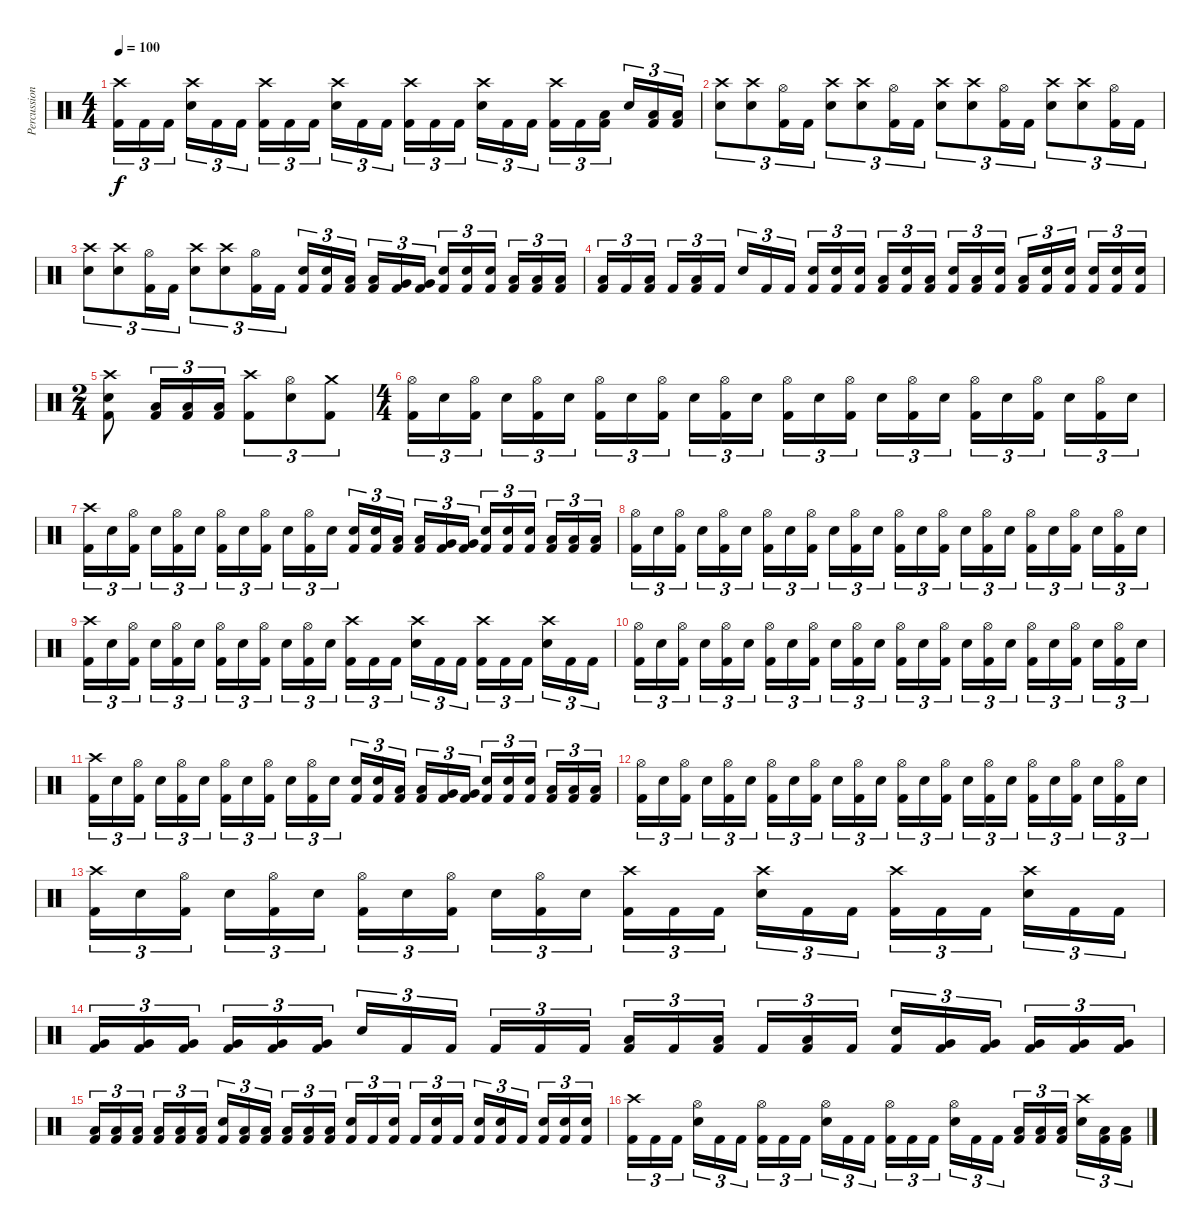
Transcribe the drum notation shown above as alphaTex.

\track ("Percussion" "Percussion") {instrument percussion}
\staff {score}
\articulation defaults
\ts (4 4)
\tempo 100
\clef neutral
\ks c
("Crash high (hit)" "Kick (hit) 2").16{tu (3 2) dy f} "Kick (hit) 2".16{tu (3 2)} "Kick (hit) 2".16{tu (3 2)} ("Crash high (hit)" "Electric Snare (hit)").16{tu (3 2)} "Kick (hit) 2".16{tu (3 2)} "Kick (hit) 2".16{tu (3 2)} ("Crash high (hit)" "Kick (hit) 2").16{tu (3 2)} "Kick (hit) 2".16{tu (3 2)} "Kick (hit) 2".16{tu (3 2)} ("Crash high (hit)" "Electric Snare (hit)").16{tu (3 2)} "Kick (hit) 2".16{tu (3 2)} "Kick (hit) 2".16{tu (3 2)} ("Crash high (hit)" "Kick (hit) 2").16{tu (3 2)} "Kick (hit) 2".16{tu (3 2)} "Kick (hit) 2".16{tu (3 2)} ("Crash high (hit)" "Electric Snare (hit)").16{tu (3 2)} "Kick (hit) 2".16{tu (3 2)} "Kick (hit) 2".16{tu (3 2)} ("Crash high (hit)" "Kick (hit) 2").16{tu (3 2)} "Kick (hit) 2".16{tu (3 2)} ("Low Tom (hit)" "Kick (hit) 2").16{tu (3 2)} "Electric Snare (hit)".16{tu (3 2)} ("Low Tom (hit)" "Kick (hit) 2").16{tu (3 2)} ("Low Tom (hit)" "Kick (hit) 2").16{tu (3 2)} |
("Crash high (hit)" "Electric Snare (hit)").8{tu (3 2)} ("Crash high (hit)" "Electric Snare (hit)").8{tu (3 2)} ("Hi-Hat (open)" "Kick (hit) 2").16{tu (3 2)} "Kick (hit) 2".16{tu (3 2)} ("Crash high (hit)" "Electric Snare (hit)").8{tu (3 2)} ("Crash high (hit)" "Electric Snare (hit)").8{tu (3 2)} ("Hi-Hat (open)" "Kick (hit) 2").16{tu (3 2)} "Kick (hit) 2".16{tu (3 2)} ("Crash high (hit)" "Electric Snare (hit)").8{tu (3 2)} ("Crash high (hit)" "Electric Snare (hit)").8{tu (3 2)} ("Hi-Hat (open)" "Kick (hit) 2").16{tu (3 2)} "Kick (hit) 2".16{tu (3 2)} ("Crash high (hit)" "Electric Snare (hit)").8{tu (3 2)} ("Crash high (hit)" "Electric Snare (hit)").8{tu (3 2)} ("Hi-Hat (open)" "Kick (hit) 2").16{tu (3 2)} "Kick (hit) 2".16{tu (3 2)} |
("Crash high (hit)" "Electric Snare (hit)").8{tu (3 2)} ("Crash high (hit)" "Electric Snare (hit)").8{tu (3 2)} ("Hi-Hat (open)" "Kick (hit) 2").16{tu (3 2)} "Kick (hit) 2".16{tu (3 2)} ("Crash high (hit)" "Electric Snare (hit)").8{tu (3 2)} ("Crash high (hit)" "Electric Snare (hit)").8{tu (3 2)} ("Hi-Hat (open)" "Kick (hit) 2").16{tu (3 2)} "Kick (hit) 2".16{tu (3 2)} ("Electric Snare (hit)" "Kick (hit) 2").16{tu (3 2)} ("Electric Snare (hit)" "Kick (hit) 2").16{tu (3 2)} ("Low Tom (hit)" "Kick (hit) 2").16{tu (3 2)} ("Low Tom (hit)" "Kick (hit) 2").16{tu (3 2)} ("Very Low Tom (hit)" "Kick (hit) 2").16{tu (3 2)} ("Very Low Tom (hit)" "Kick (hit) 2").16{tu (3 2)} ("Electric Snare (hit)" "Kick (hit) 2").16{tu (3 2)} ("Electric Snare (hit)" "Kick (hit) 2").16{tu (3 2)} ("Electric Snare (hit)" "Kick (hit) 2").16{tu (3 2)} ("Low Tom (hit)" "Kick (hit) 2").16{tu (3 2)} ("Low Tom (hit)" "Kick (hit) 2").16{tu (3 2)} ("Low Tom (hit)" "Kick (hit) 2").16{tu (3 2)} |
("Low Tom (hit)" "Kick (hit) 2").16{tu (3 2)} "Kick (hit) 2".16{tu (3 2)} ("Low Tom (hit)" "Kick (hit) 2").16{tu (3 2)} "Kick (hit) 2".16{tu (3 2)} ("Low Tom (hit)" "Kick (hit) 2").16{tu (3 2)} "Kick (hit) 2".16{tu (3 2)} "Electric Snare (hit)".16{tu (3 2)} "Kick (hit) 2".16{tu (3 2)} "Kick (hit) 2".16{tu (3 2)} ("Electric Snare (hit)" "Kick (hit) 2").16{tu (3 2)} ("Electric Snare (hit)" "Kick (hit) 2").16{tu (3 2)} ("Electric Snare (hit)" "Kick (hit) 2").16{tu (3 2)} ("Low Tom (hit)" "Kick (hit) 2").16{tu (3 2)} ("Electric Snare (hit)" "Kick (hit) 2").16{tu (3 2)} ("Low Tom (hit)" "Kick (hit) 2").16{tu (3 2)} ("Electric Snare (hit)" "Kick (hit) 2").16{tu (3 2)} ("Low Tom (hit)" "Kick (hit) 2").16{tu (3 2)} ("Electric Snare (hit)" "Kick (hit) 2").16{tu (3 2)} ("Low Tom (hit)" "Kick (hit) 2").16{tu (3 2)} ("Electric Snare (hit)" "Kick (hit) 2").16{tu (3 2)} ("Electric Snare (hit)" "Kick (hit) 2").16{tu (3 2)} ("Electric Snare (hit)" "Kick (hit) 2").16{tu (3 2)} ("Electric Snare (hit)" "Kick (hit) 2").16{tu (3 2)} ("Electric Snare (hit)" "Kick (hit) 2").16{tu (3 2)} |
\ts (2 4)
("Crash high (hit)" "Electric Snare (hit)" "Kick (hit) 2").8 ("Low Tom (hit)" "Kick (hit) 2").16{tu (3 2)} ("Low Tom (hit)" "Kick (hit) 2").16{tu (3 2)} ("Low Tom (hit)" "Kick (hit) 2").16{tu (3 2)} ("Crash high (hit)" "Kick (hit) 2").8{tu (3 2)} ("Hi-Hat (open)" "Electric Snare (hit)").8{tu (3 2)} ("Crash medium (hit)" "Kick (hit) 2").8{tu (3 2)} |
\ts (4 4)
("Hi-Hat (open)" "Kick (hit) 2").16{tu (3 2)} "Electric Snare (hit)".16{tu (3 2)} ("Hi-Hat (open)" "Kick (hit) 2").16{tu (3 2)} "Electric Snare (hit)".16{tu (3 2)} ("Hi-Hat (open)" "Kick (hit) 2").16{tu (3 2)} "Electric Snare (hit)".16{tu (3 2)} ("Hi-Hat (open)" "Kick (hit) 2").16{tu (3 2)} "Electric Snare (hit)".16{tu (3 2)} ("Hi-Hat (open)" "Kick (hit) 2").16{tu (3 2)} "Electric Snare (hit)".16{tu (3 2)} ("Hi-Hat (open)" "Kick (hit) 2").16{tu (3 2)} "Electric Snare (hit)".16{tu (3 2)} ("Hi-Hat (open)" "Kick (hit) 2").16{tu (3 2)} "Electric Snare (hit)".16{tu (3 2)} ("Hi-Hat (open)" "Kick (hit) 2").16{tu (3 2)} "Electric Snare (hit)".16{tu (3 2)} ("Hi-Hat (open)" "Kick (hit) 2").16{tu (3 2)} "Electric Snare (hit)".16{tu (3 2)} ("Hi-Hat (open)" "Kick (hit) 2").16{tu (3 2)} "Electric Snare (hit)".16{tu (3 2)} ("Hi-Hat (open)" "Kick (hit) 2").16{tu (3 2)} "Electric Snare (hit)".16{tu (3 2)} ("Hi-Hat (open)" "Kick (hit) 2").16{tu (3 2)} "Electric Snare (hit)".16{tu (3 2)} |
("Crash high (hit)" "Kick (hit) 2").16{tu (3 2)} "Electric Snare (hit)".16{tu (3 2)} ("Hi-Hat (open)" "Kick (hit) 2").16{tu (3 2)} "Electric Snare (hit)".16{tu (3 2)} ("Hi-Hat (open)" "Kick (hit) 2").16{tu (3 2)} "Electric Snare (hit)".16{tu (3 2)} ("Hi-Hat (open)" "Kick (hit) 2").16{tu (3 2)} "Electric Snare (hit)".16{tu (3 2)} ("Hi-Hat (open)" "Kick (hit) 2").16{tu (3 2)} "Electric Snare (hit)".16{tu (3 2)} ("Hi-Hat (open)" "Kick (hit) 2").16{tu (3 2)} "Electric Snare (hit)".16{tu (3 2)} ("Electric Snare (hit)" "Kick (hit) 2").16{tu (3 2)} ("Electric Snare (hit)" "Kick (hit) 2").16{tu (3 2)} ("Low Tom (hit)" "Kick (hit) 2").16{tu (3 2)} ("Low Tom (hit)" "Kick (hit) 2").16{tu (3 2)} ("Very Low Tom (hit)" "Kick (hit) 2").16{tu (3 2)} ("Very Low Tom (hit)" "Kick (hit) 2").16{tu (3 2)} ("Electric Snare (hit)" "Kick (hit) 2").16{tu (3 2)} ("Electric Snare (hit)" "Kick (hit) 2").16{tu (3 2)} ("Electric Snare (hit)" "Kick (hit) 2").16{tu (3 2)} ("Low Tom (hit)" "Kick (hit) 2").16{tu (3 2)} ("Low Tom (hit)" "Kick (hit) 2").16{tu (3 2)} ("Low Tom (hit)" "Kick (hit) 2").16{tu (3 2)} |
("Hi-Hat (open)" "Kick (hit) 2").16{tu (3 2)} "Electric Snare (hit)".16{tu (3 2)} ("Hi-Hat (open)" "Kick (hit) 2").16{tu (3 2)} "Electric Snare (hit)".16{tu (3 2)} ("Hi-Hat (open)" "Kick (hit) 2").16{tu (3 2)} "Electric Snare (hit)".16{tu (3 2)} ("Hi-Hat (open)" "Kick (hit) 2").16{tu (3 2)} "Electric Snare (hit)".16{tu (3 2)} ("Hi-Hat (open)" "Kick (hit) 2").16{tu (3 2)} "Electric Snare (hit)".16{tu (3 2)} ("Hi-Hat (open)" "Kick (hit) 2").16{tu (3 2)} "Electric Snare (hit)".16{tu (3 2)} ("Hi-Hat (open)" "Kick (hit) 2").16{tu (3 2)} "Electric Snare (hit)".16{tu (3 2)} ("Hi-Hat (open)" "Kick (hit) 2").16{tu (3 2)} "Electric Snare (hit)".16{tu (3 2)} ("Hi-Hat (open)" "Kick (hit) 2").16{tu (3 2)} "Electric Snare (hit)".16{tu (3 2)} ("Hi-Hat (open)" "Kick (hit) 2").16{tu (3 2)} "Electric Snare (hit)".16{tu (3 2)} ("Hi-Hat (open)" "Kick (hit) 2").16{tu (3 2)} "Electric Snare (hit)".16{tu (3 2)} ("Hi-Hat (open)" "Kick (hit) 2").16{tu (3 2)} "Electric Snare (hit)".16{tu (3 2)} |
("Crash high (hit)" "Kick (hit) 2").16{tu (3 2)} "Electric Snare (hit)".16{tu (3 2)} ("Hi-Hat (open)" "Kick (hit) 2").16{tu (3 2)} "Electric Snare (hit)".16{tu (3 2)} ("Hi-Hat (open)" "Kick (hit) 2").16{tu (3 2)} "Electric Snare (hit)".16{tu (3 2)} ("Hi-Hat (open)" "Kick (hit) 2").16{tu (3 2)} "Electric Snare (hit)".16{tu (3 2)} ("Hi-Hat (open)" "Kick (hit) 2").16{tu (3 2)} "Electric Snare (hit)".16{tu (3 2)} ("Hi-Hat (open)" "Kick (hit) 2").16{tu (3 2)} "Electric Snare (hit)".16{tu (3 2)} ("Crash high (hit)" "Kick (hit) 2").16{tu (3 2)} "Kick (hit) 2".16{tu (3 2)} "Kick (hit) 2".16{tu (3 2)} ("Crash high (hit)" "Electric Snare (hit)").16{tu (3 2)} "Kick (hit) 2".16{tu (3 2)} "Kick (hit) 2".16{tu (3 2)} ("Crash high (hit)" "Kick (hit) 2").16{tu (3 2)} "Kick (hit) 2".16{tu (3 2)} "Kick (hit) 2".16{tu (3 2)} ("Crash high (hit)" "Electric Snare (hit)").16{tu (3 2)} "Kick (hit) 2".16{tu (3 2)} "Kick (hit) 2".16{tu (3 2)} |
("Hi-Hat (open)" "Kick (hit) 2").16{tu (3 2)} "Electric Snare (hit)".16{tu (3 2)} ("Hi-Hat (open)" "Kick (hit) 2").16{tu (3 2)} "Electric Snare (hit)".16{tu (3 2)} ("Hi-Hat (open)" "Kick (hit) 2").16{tu (3 2)} "Electric Snare (hit)".16{tu (3 2)} ("Hi-Hat (open)" "Kick (hit) 2").16{tu (3 2)} "Electric Snare (hit)".16{tu (3 2)} ("Hi-Hat (open)" "Kick (hit) 2").16{tu (3 2)} "Electric Snare (hit)".16{tu (3 2)} ("Hi-Hat (open)" "Kick (hit) 2").16{tu (3 2)} "Electric Snare (hit)".16{tu (3 2)} ("Hi-Hat (open)" "Kick (hit) 2").16{tu (3 2)} "Electric Snare (hit)".16{tu (3 2)} ("Hi-Hat (open)" "Kick (hit) 2").16{tu (3 2)} "Electric Snare (hit)".16{tu (3 2)} ("Hi-Hat (open)" "Kick (hit) 2").16{tu (3 2)} "Electric Snare (hit)".16{tu (3 2)} ("Hi-Hat (open)" "Kick (hit) 2").16{tu (3 2)} "Electric Snare (hit)".16{tu (3 2)} ("Hi-Hat (open)" "Kick (hit) 2").16{tu (3 2)} "Electric Snare (hit)".16{tu (3 2)} ("Hi-Hat (open)" "Kick (hit) 2").16{tu (3 2)} "Electric Snare (hit)".16{tu (3 2)} |
("Crash high (hit)" "Kick (hit) 2").16{tu (3 2)} "Electric Snare (hit)".16{tu (3 2)} ("Hi-Hat (open)" "Kick (hit) 2").16{tu (3 2)} "Electric Snare (hit)".16{tu (3 2)} ("Hi-Hat (open)" "Kick (hit) 2").16{tu (3 2)} "Electric Snare (hit)".16{tu (3 2)} ("Hi-Hat (open)" "Kick (hit) 2").16{tu (3 2)} "Electric Snare (hit)".16{tu (3 2)} ("Hi-Hat (open)" "Kick (hit) 2").16{tu (3 2)} "Electric Snare (hit)".16{tu (3 2)} ("Hi-Hat (open)" "Kick (hit) 2").16{tu (3 2)} "Electric Snare (hit)".16{tu (3 2)} ("Electric Snare (hit)" "Kick (hit) 2").16{tu (3 2)} ("Electric Snare (hit)" "Kick (hit) 2").16{tu (3 2)} ("Low Tom (hit)" "Kick (hit) 2").16{tu (3 2)} ("Low Tom (hit)" "Kick (hit) 2").16{tu (3 2)} ("Very Low Tom (hit)" "Kick (hit) 2").16{tu (3 2)} ("Very Low Tom (hit)" "Kick (hit) 2").16{tu (3 2)} ("Electric Snare (hit)" "Kick (hit) 2").16{tu (3 2)} ("Electric Snare (hit)" "Kick (hit) 2").16{tu (3 2)} ("Electric Snare (hit)" "Kick (hit) 2").16{tu (3 2)} ("Low Tom (hit)" "Kick (hit) 2").16{tu (3 2)} ("Low Tom (hit)" "Kick (hit) 2").16{tu (3 2)} ("Low Tom (hit)" "Kick (hit) 2").16{tu (3 2)} |
("Hi-Hat (open)" "Kick (hit) 2").16{tu (3 2)} "Electric Snare (hit)".16{tu (3 2)} ("Hi-Hat (open)" "Kick (hit) 2").16{tu (3 2)} "Electric Snare (hit)".16{tu (3 2)} ("Hi-Hat (open)" "Kick (hit) 2").16{tu (3 2)} "Electric Snare (hit)".16{tu (3 2)} ("Hi-Hat (open)" "Kick (hit) 2").16{tu (3 2)} "Electric Snare (hit)".16{tu (3 2)} ("Hi-Hat (open)" "Kick (hit) 2").16{tu (3 2)} "Electric Snare (hit)".16{tu (3 2)} ("Hi-Hat (open)" "Kick (hit) 2").16{tu (3 2)} "Electric Snare (hit)".16{tu (3 2)} ("Hi-Hat (open)" "Kick (hit) 2").16{tu (3 2)} "Electric Snare (hit)".16{tu (3 2)} ("Hi-Hat (open)" "Kick (hit) 2").16{tu (3 2)} "Electric Snare (hit)".16{tu (3 2)} ("Hi-Hat (open)" "Kick (hit) 2").16{tu (3 2)} "Electric Snare (hit)".16{tu (3 2)} ("Hi-Hat (open)" "Kick (hit) 2").16{tu (3 2)} "Electric Snare (hit)".16{tu (3 2)} ("Hi-Hat (open)" "Kick (hit) 2").16{tu (3 2)} "Electric Snare (hit)".16{tu (3 2)} ("Hi-Hat (open)" "Kick (hit) 2").16{tu (3 2)} "Electric Snare (hit)".16{tu (3 2)} |
("Crash high (hit)" "Kick (hit) 2").16{tu (3 2)} "Electric Snare (hit)".16{tu (3 2)} ("Hi-Hat (open)" "Kick (hit) 2").16{tu (3 2)} "Electric Snare (hit)".16{tu (3 2)} ("Hi-Hat (open)" "Kick (hit) 2").16{tu (3 2)} "Electric Snare (hit)".16{tu (3 2)} ("Hi-Hat (open)" "Kick (hit) 2").16{tu (3 2)} "Electric Snare (hit)".16{tu (3 2)} ("Hi-Hat (open)" "Kick (hit) 2").16{tu (3 2)} "Electric Snare (hit)".16{tu (3 2)} ("Hi-Hat (open)" "Kick (hit) 2").16{tu (3 2)} "Electric Snare (hit)".16{tu (3 2)} ("Crash high (hit)" "Kick (hit) 2").16{tu (3 2)} "Kick (hit) 2".16{tu (3 2)} "Kick (hit) 2".16{tu (3 2)} ("Crash high (hit)" "Electric Snare (hit)").16{tu (3 2)} "Kick (hit) 2".16{tu (3 2)} "Kick (hit) 2".16{tu (3 2)} ("Crash high (hit)" "Kick (hit) 2").16{tu (3 2)} "Kick (hit) 2".16{tu (3 2)} "Kick (hit) 2".16{tu (3 2)} ("Crash high (hit)" "Electric Snare (hit)").16{tu (3 2)} "Kick (hit) 2".16{tu (3 2)} "Kick (hit) 2".16{tu (3 2)} |
("Very Low Tom (hit)" "Kick (hit) 2").16{tu (3 2)} ("Very Low Tom (hit)" "Kick (hit) 2").16{tu (3 2)} ("Very Low Tom (hit)" "Kick (hit) 2").16{tu (3 2)} ("Very Low Tom (hit)" "Kick (hit) 2").16{tu (3 2)} ("Very Low Tom (hit)" "Kick (hit) 2").16{tu (3 2)} ("Very Low Tom (hit)" "Kick (hit) 2").16{tu (3 2)} "Electric Snare (hit)".16{tu (3 2)} "Kick (hit) 2".16{tu (3 2)} "Kick (hit) 2".16{tu (3 2)} "Kick (hit) 2".16{tu (3 2)} "Kick (hit) 2".16{tu (3 2)} "Kick (hit) 2".16{tu (3 2)} ("Low Tom (hit)" "Kick (hit) 2").16{tu (3 2)} "Kick (hit) 2".16{tu (3 2)} ("Low Tom (hit)" "Kick (hit) 2").16{tu (3 2)} "Kick (hit) 2".16{tu (3 2)} ("Low Tom (hit)" "Kick (hit) 2").16{tu (3 2)} "Kick (hit) 2".16{tu (3 2)} ("Electric Snare (hit)" "Kick (hit) 2").16{tu (3 2)} ("Very Low Tom (hit)" "Kick (hit) 2").16{tu (3 2)} ("Very Low Tom (hit)" "Kick (hit) 2").16{tu (3 2)} ("Very Low Tom (hit)" "Kick (hit) 2").16{tu (3 2)} ("Very Low Tom (hit)" "Kick (hit) 2").16{tu (3 2)} ("Very Low Tom (hit)" "Kick (hit) 2").16{tu (3 2)} |
("Low Tom (hit)" "Kick (hit) 2").16{tu (3 2)} ("Low Tom (hit)" "Kick (hit) 2").16{tu (3 2)} ("Low Tom (hit)" "Kick (hit) 2").16{tu (3 2)} ("Low Tom (hit)" "Kick (hit) 2").16{tu (3 2)} ("Low Tom (hit)" "Kick (hit) 2").16{tu (3 2)} ("Low Tom (hit)" "Kick (hit) 2").16{tu (3 2)} ("Electric Snare (hit)" "Kick (hit) 2").16{tu (3 2)} ("Low Tom (hit)" "Kick (hit) 2").16{tu (3 2)} ("Low Tom (hit)" "Kick (hit) 2").16{tu (3 2)} ("Low Tom (hit)" "Kick (hit) 2").16{tu (3 2)} ("Low Tom (hit)" "Kick (hit) 2").16{tu (3 2)} ("Low Tom (hit)" "Kick (hit) 2").16{tu (3 2)} ("Electric Snare (hit)" "Kick (hit) 2").16{tu (3 2)} "Kick (hit) 2".16{tu (3 2)} ("Electric Snare (hit)" "Kick (hit) 2").16{tu (3 2)} "Kick (hit) 2".16{tu (3 2)} ("Electric Snare (hit)" "Kick (hit) 2").16{tu (3 2)} "Kick (hit) 2".16{tu (3 2)} ("Electric Snare (hit)" "Kick (hit) 2").16{tu (3 2)} ("Electric Snare (hit)" "Kick (hit) 2").16{tu (3 2)} "Kick (hit) 2".16{tu (3 2)} ("Electric Snare (hit)" "Kick (hit) 2").16{tu (3 2)} ("Electric Snare (hit)" "Kick (hit) 2").16{tu (3 2)} ("Electric Snare (hit)" "Kick (hit) 2").16{tu (3 2)} |
("Crash high (hit)" "Kick (hit) 2").16{tu (3 2)} "Kick (hit) 2".16{tu (3 2)} "Kick (hit) 2".16{tu (3 2)} ("Hi-Hat (open)" "Electric Snare (hit)").16{tu (3 2)} "Kick (hit) 2".16{tu (3 2)} "Kick (hit) 2".16{tu (3 2)} ("Hi-Hat (open)" "Kick (hit) 2").16{tu (3 2)} "Kick (hit) 2".16{tu (3 2)} "Kick (hit) 2".16{tu (3 2)} ("Hi-Hat (open)" "Electric Snare (hit)").16{tu (3 2)} "Kick (hit) 2".16{tu (3 2)} "Kick (hit) 2".16{tu (3 2)} ("Hi-Hat (open)" "Kick (hit) 2").16{tu (3 2)} "Kick (hit) 2".16{tu (3 2)} "Kick (hit) 2".16{tu (3 2)} ("Hi-Hat (open)" "Electric Snare (hit)").16{tu (3 2)} "Kick (hit) 2".16{tu (3 2)} "Kick (hit) 2".16{tu (3 2)} ("Low Tom (hit)" "Kick (hit) 2").16{tu (3 2)} ("Low Tom (hit)" "Kick (hit) 2").16{tu (3 2)} ("Low Tom (hit)" "Kick (hit) 2").16{tu (3 2)} ("Crash high (hit)" "Electric Snare (hit)").16{tu (3 2)} ("Low Tom (hit)" "Kick (hit) 2").16{tu (3 2)} ("Low Tom (hit)" "Kick (hit) 2").16{tu (3 2)}
